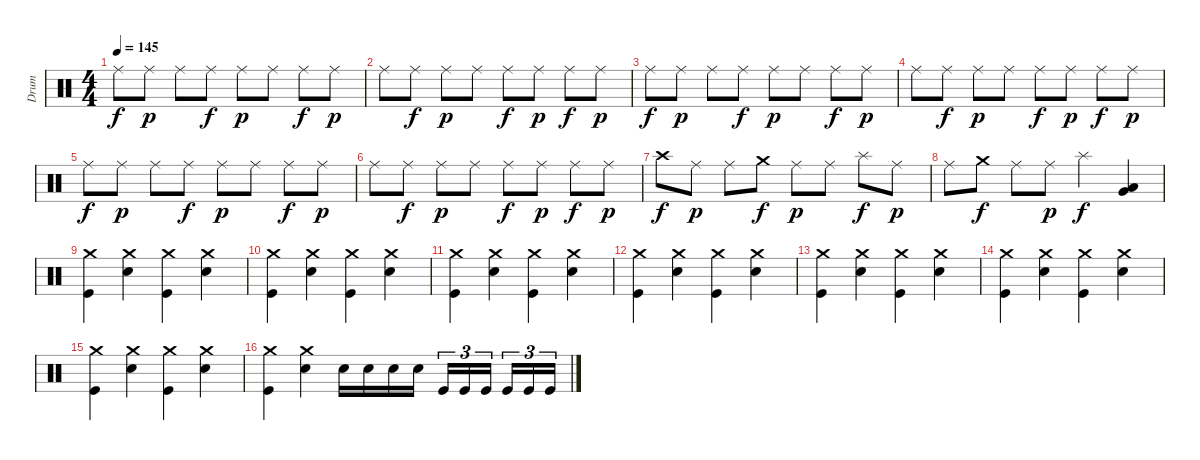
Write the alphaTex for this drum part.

\track ("Drum" "Drum") {instrument percussion}
\staff {score}
\articulation defaults
\ts (4 4)
\tempo 145
\clef neutral
\ks c "Ride (middle)".8{dy f} "Ride (middle)".8{dy p} "Ride (middle)".8 "Ride (middle)".8{dy f} "Ride (middle)".8{dy p} "Ride (middle)".8 "Ride (middle)".8{dy f} "Ride (middle)".8{dy p}
|
"Ride (middle)".8 "Ride (middle)".8{dy f} "Ride (middle)".8{dy p} "Ride (middle)".8 "Ride (middle)".8{dy f} "Ride (middle)".8{dy p} "Ride (middle)".8{dy f} "Ride (middle)".8{dy p} |
"Ride (middle)".8{dy f} "Ride (middle)".8{dy p} "Ride (middle)".8 "Ride (middle)".8{dy f} "Ride (middle)".8{dy p} "Ride (middle)".8 "Ride (middle)".8{dy f} "Ride (middle)".8{dy p} |
"Ride (middle)".8 "Ride (middle)".8{dy f} "Ride (middle)".8{dy p} "Ride (middle)".8 "Ride (middle)".8{dy f} "Ride (middle)".8{dy p} "Ride (middle)".8{dy f} "Ride (middle)".8{dy p} |
"Ride (middle)".8{dy f} "Ride (middle)".8{dy p} "Ride (middle)".8 "Ride (middle)".8{dy f} "Ride (middle)".8{dy p} "Ride (middle)".8 "Ride (middle)".8{dy f} "Ride (middle)".8{dy p} |
"Ride (middle)".8 "Ride (middle)".8{dy f} "Ride (middle)".8{dy p} "Ride (middle)".8 "Ride (middle)".8{dy f} "Ride (middle)".8{dy p} "Ride (middle)".8{dy f} "Ride (middle)".8{dy p} |
"Crash high (hit)".8{dy f} "Ride (middle)".8{dy p} "Ride (middle)".8 "Crash medium (hit)".8{dy f} "Ride (middle)".8{dy p} "Ride (middle)".8 "Splash (hit)".8{dy f} "Ride (middle)".8{dy p} |
"Ride (middle)".8 "Crash medium (hit)".8{dy f} "Ride (middle)".8 "Ride (middle)".8{dy p} "Splash (hit)".4{dy f} ("Very Low Tom (hit)" "Low Floor Tom (hit)").4 |
("Kick (hit)" "Crash medium (hit)").4 ("Electric Snare (hit)" "Crash medium (hit)").4 ("Kick (hit)" "Crash medium (hit)").4 ("Electric Snare (hit)" "Crash medium (hit)").4 |
("Kick (hit)" "Crash medium (hit)").4 ("Electric Snare (hit)" "Crash medium (hit)").4 ("Kick (hit)" "Crash medium (hit)").4 ("Electric Snare (hit)" "Crash medium (hit)").4 |
("Kick (hit)" "Crash medium (hit)").4 ("Electric Snare (hit)" "Crash medium (hit)").4 ("Kick (hit)" "Crash medium (hit)").4 ("Electric Snare (hit)" "Crash medium (hit)").4 |
("Kick (hit)" "Crash medium (hit)").4 ("Electric Snare (hit)" "Crash medium (hit)").4 ("Kick (hit)" "Crash medium (hit)").4 ("Electric Snare (hit)" "Crash medium (hit)").4 |
("Kick (hit)" "Crash medium (hit)").4 ("Electric Snare (hit)" "Crash medium (hit)").4 ("Kick (hit)" "Crash medium (hit)").4 ("Electric Snare (hit)" "Crash medium (hit)").4 |
("Kick (hit)" "Crash medium (hit)").4 ("Electric Snare (hit)" "Crash medium (hit)").4 ("Kick (hit)" "Crash medium (hit)").4 ("Electric Snare (hit)" "Crash medium (hit)").4 |
("Kick (hit)" "Crash medium (hit)").4 ("Electric Snare (hit)" "Crash medium (hit)").4 ("Kick (hit)" "Crash medium (hit)").4 ("Electric Snare (hit)" "Crash medium (hit)").4 |
("Kick (hit)" "Crash medium (hit)").4 ("Electric Snare (hit)" "Crash medium (hit)").4 "Electric Snare (hit)".16 "Electric Snare (hit)".16 "Electric Snare (hit)".16 "Electric Snare (hit)".16 "Kick (hit)".16{tu (3 2)} "Kick (hit)".16{tu (3 2)} "Kick (hit)".16{tu (3 2)} "Kick (hit)".16{tu (3 2)} "Kick (hit)".16{tu (3 2)} "Kick (hit)".16{tu (3 2)}
